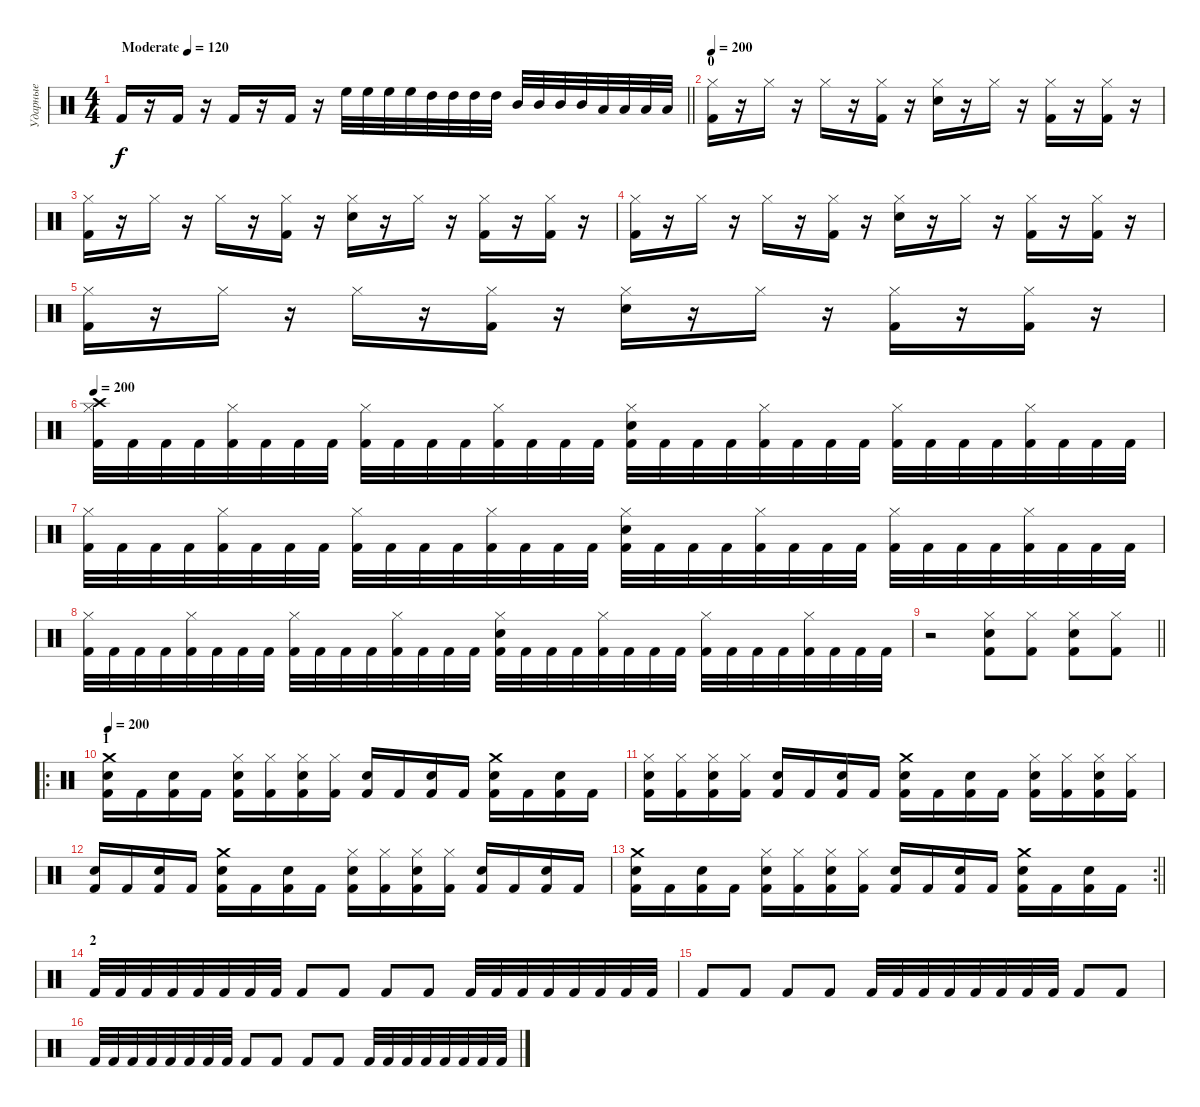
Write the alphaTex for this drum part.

\track ("Ударные" "Ударные") {instrument percussion}
\staff {score}
\articulation defaults
\ts (4 4)
\tempo (120 "Moderate")
\tempo 200
\tempo (120 "Moderate")
\clef neutral
\barLineRight lightlight
\ks c "Kick (hit) 2".16{dy f}
r.16 "Kick (hit) 2".16 r.16 "Kick (hit) 2".16 r.16 "Kick (hit) 2".16 r.16 "High Floor Tom (hit)".32 "High Floor Tom (hit)".32 "High Floor Tom (hit)".32 "High Floor Tom (hit)".32 "High Tom (hit)".32 "High Tom (hit)".32 "High Tom (hit)".32 "High Tom (hit)".32 "Mid Tom (hit)".32 "Mid Tom (hit)".32 "Mid Tom (hit)".32 "Mid Tom (hit)".32 "Low Tom (hit)".32 "Low Tom (hit)".32 "Low Tom (hit)".32 "Low Tom (hit)".32 |
\section ("" "0")
\tempo 200
("Hi-Hat (closed)" "Kick (hit) 2").16 r.16 "Hi-Hat (closed)".16 r.16 "Hi-Hat (closed)".16 r.16 ("Hi-Hat (closed)" "Kick (hit) 2").16 r.16 ("Hi-Hat (closed)" "Electric Snare (hit)").16 r.16 "Hi-Hat (closed)".16 r.16 ("Hi-Hat (closed)" "Kick (hit) 2").16 r.16 ("Hi-Hat (closed)" "Kick (hit) 2").16 r.16 |
("Hi-Hat (closed)" "Kick (hit) 2").16 r.16 "Hi-Hat (closed)".16 r.16 "Hi-Hat (closed)".16 r.16 ("Hi-Hat (closed)" "Kick (hit) 2").16 r.16 ("Hi-Hat (closed)" "Electric Snare (hit)").16 r.16 "Hi-Hat (closed)".16 r.16 ("Hi-Hat (closed)" "Kick (hit) 2").16 r.16 ("Hi-Hat (closed)" "Kick (hit) 2").16 r.16 |
("Hi-Hat (closed)" "Kick (hit) 2").16 r.16 "Hi-Hat (closed)".16 r.16 "Hi-Hat (closed)".16 r.16 ("Hi-Hat (closed)" "Kick (hit) 2").16 r.16 ("Hi-Hat (closed)" "Electric Snare (hit)").16 r.16 "Hi-Hat (closed)".16 r.16 ("Hi-Hat (closed)" "Kick (hit) 2").16 r.16 ("Hi-Hat (closed)" "Kick (hit) 2").16 r.16 |
("Hi-Hat (closed)" "Kick (hit) 2").16 r.16 "Hi-Hat (closed)".16 r.16 "Hi-Hat (closed)".16 r.16 ("Hi-Hat (closed)" "Kick (hit) 2").16 r.16 ("Hi-Hat (closed)" "Electric Snare (hit)").16 r.16 "Hi-Hat (closed)".16 r.16 ("Hi-Hat (closed)" "Kick (hit) 2").16 r.16 ("Hi-Hat (closed)" "Kick (hit) 2").16 r.16 |
\tempo 200
("Hi-Hat (closed)" "Crash high (hit)" "Kick (hit) 2").32 "Kick (hit) 2".32 "Kick (hit) 2".32 "Kick (hit) 2".32 ("Hi-Hat (closed)" "Kick (hit) 2").32 "Kick (hit) 2".32 "Kick (hit) 2".32 "Kick (hit) 2".32 ("Hi-Hat (closed)" "Kick (hit) 2").32 "Kick (hit) 2".32 "Kick (hit) 2".32 "Kick (hit) 2".32 ("Hi-Hat (closed)" "Kick (hit) 2").32 "Kick (hit) 2".32 "Kick (hit) 2".32 "Kick (hit) 2".32 ("Hi-Hat (closed)" "Electric Snare (hit)" "Kick (hit) 2").32 "Kick (hit) 2".32 "Kick (hit) 2".32 "Kick (hit) 2".32 ("Hi-Hat (closed)" "Kick (hit) 2").32 "Kick (hit) 2".32 "Kick (hit) 2".32 "Kick (hit) 2".32 ("Hi-Hat (closed)" "Kick (hit) 2").32 "Kick (hit) 2".32 "Kick (hit) 2".32 "Kick (hit) 2".32 ("Hi-Hat (closed)" "Kick (hit) 2").32 "Kick (hit) 2".32 "Kick (hit) 2".32 "Kick (hit) 2".32 |
("Hi-Hat (closed)" "Kick (hit) 2").32 "Kick (hit) 2".32 "Kick (hit) 2".32 "Kick (hit) 2".32 ("Hi-Hat (closed)" "Kick (hit) 2").32 "Kick (hit) 2".32 "Kick (hit) 2".32 "Kick (hit) 2".32 ("Hi-Hat (closed)" "Kick (hit) 2").32 "Kick (hit) 2".32 "Kick (hit) 2".32 "Kick (hit) 2".32 ("Hi-Hat (closed)" "Kick (hit) 2").32 "Kick (hit) 2".32 "Kick (hit) 2".32 "Kick (hit) 2".32 ("Hi-Hat (closed)" "Electric Snare (hit)" "Kick (hit) 2").32 "Kick (hit) 2".32 "Kick (hit) 2".32 "Kick (hit) 2".32 ("Hi-Hat (closed)" "Kick (hit) 2").32 "Kick (hit) 2".32 "Kick (hit) 2".32 "Kick (hit) 2".32 ("Hi-Hat (closed)" "Kick (hit) 2").32 "Kick (hit) 2".32 "Kick (hit) 2".32 "Kick (hit) 2".32 ("Hi-Hat (closed)" "Kick (hit) 2").32 "Kick (hit) 2".32 "Kick (hit) 2".32 "Kick (hit) 2".32 |
("Hi-Hat (closed)" "Kick (hit) 2").32 "Kick (hit) 2".32 "Kick (hit) 2".32 "Kick (hit) 2".32 ("Hi-Hat (closed)" "Kick (hit) 2").32 "Kick (hit) 2".32 "Kick (hit) 2".32 "Kick (hit) 2".32 ("Hi-Hat (closed)" "Kick (hit) 2").32 "Kick (hit) 2".32 "Kick (hit) 2".32 "Kick (hit) 2".32 ("Hi-Hat (closed)" "Kick (hit) 2").32 "Kick (hit) 2".32 "Kick (hit) 2".32 "Kick (hit) 2".32 ("Hi-Hat (closed)" "Electric Snare (hit)" "Kick (hit) 2").32 "Kick (hit) 2".32 "Kick (hit) 2".32 "Kick (hit) 2".32 ("Hi-Hat (closed)" "Kick (hit) 2").32 "Kick (hit) 2".32 "Kick (hit) 2".32 "Kick (hit) 2".32 ("Hi-Hat (closed)" "Kick (hit) 2").32 "Kick (hit) 2".32 "Kick (hit) 2".32 "Kick (hit) 2".32 ("Hi-Hat (closed)" "Kick (hit) 2").32 "Kick (hit) 2".32 "Kick (hit) 2".32 "Kick (hit) 2".32 |
\barLineRight lightlight
r.2 ("Hi-Hat (closed)" "Snare (hit) 2" "Kick (hit) 2").8 ("Hi-Hat (closed)" "Kick (hit) 2").8 ("Hi-Hat (closed)" "Snare (hit) 2" "Kick (hit) 2").8 ("Hi-Hat (closed)" "Kick (hit) 2").8 |
\ro
\section ("" "1")
\tempo 200
("Crash medium (hit)" "Electric Snare (hit)" "Kick (hit) 2").16 "Kick (hit) 2".16 ("Electric Snare (hit)" "Kick (hit) 2").16 "Kick (hit) 2".16 ("Hi-Hat (closed)" "Electric Snare (hit)" "Kick (hit) 2").16 ("Hi-Hat (closed)" "Kick (hit) 2").16 ("Hi-Hat (closed)" "Electric Snare (hit)" "Kick (hit) 2").16 ("Hi-Hat (closed)" "Kick (hit) 2").16 ("Electric Snare (hit)" "Kick (hit) 2").16 "Kick (hit) 2".16 ("Electric Snare (hit)" "Kick (hit) 2").16 "Kick (hit) 2".16 ("Crash medium (hit)" "Electric Snare (hit)" "Kick (hit) 2").16 "Kick (hit) 2".16 ("Electric Snare (hit)" "Kick (hit) 2").16 "Kick (hit) 2".16 |
("Hi-Hat (closed)" "Electric Snare (hit)" "Kick (hit) 2").16 ("Hi-Hat (closed)" "Kick (hit) 2").16 ("Hi-Hat (closed)" "Electric Snare (hit)" "Kick (hit) 2").16 ("Hi-Hat (closed)" "Kick (hit) 2").16 ("Electric Snare (hit)" "Kick (hit) 2").16 "Kick (hit) 2".16 ("Electric Snare (hit)" "Kick (hit) 2").16 "Kick (hit) 2".16 ("Crash medium (hit)" "Electric Snare (hit)" "Kick (hit) 2").16 "Kick (hit) 2".16 ("Electric Snare (hit)" "Kick (hit) 2").16 "Kick (hit) 2".16 ("Hi-Hat (closed)" "Electric Snare (hit)" "Kick (hit) 2").16 ("Hi-Hat (closed)" "Kick (hit) 2").16 ("Hi-Hat (closed)" "Electric Snare (hit)" "Kick (hit) 2").16 ("Hi-Hat (closed)" "Kick (hit) 2").16 |
("Electric Snare (hit)" "Kick (hit) 2").16 "Kick (hit) 2".16 ("Electric Snare (hit)" "Kick (hit) 2").16 "Kick (hit) 2".16 ("Crash medium (hit)" "Electric Snare (hit)" "Kick (hit) 2").16 "Kick (hit) 2".16 ("Electric Snare (hit)" "Kick (hit) 2").16 "Kick (hit) 2".16 ("Hi-Hat (closed)" "Electric Snare (hit)" "Kick (hit) 2").16 ("Hi-Hat (closed)" "Kick (hit) 2").16 ("Hi-Hat (closed)" "Electric Snare (hit)" "Kick (hit) 2").16 ("Hi-Hat (closed)" "Kick (hit) 2").16 ("Electric Snare (hit)" "Kick (hit) 2").16 "Kick (hit) 2".16 ("Electric Snare (hit)" "Kick (hit) 2").16 "Kick (hit) 2".16 |
\rc 2
\barLineRight lightlight
("Crash medium (hit)" "Electric Snare (hit)" "Kick (hit) 2").16 "Kick (hit) 2".16 ("Electric Snare (hit)" "Kick (hit) 2").16 "Kick (hit) 2".16 ("Hi-Hat (closed)" "Electric Snare (hit)" "Kick (hit) 2").16 ("Hi-Hat (closed)" "Kick (hit) 2").16 ("Hi-Hat (closed)" "Electric Snare (hit)" "Kick (hit) 2").16 ("Hi-Hat (closed)" "Kick (hit) 2").16 ("Electric Snare (hit)" "Kick (hit) 2").16 "Kick (hit) 2".16 ("Electric Snare (hit)" "Kick (hit) 2").16 "Kick (hit) 2".16 ("Crash medium (hit)" "Electric Snare (hit)" "Kick (hit) 2").16 "Kick (hit) 2".16 ("Electric Snare (hit)" "Kick (hit) 2").16 "Kick (hit) 2".16 |
\section ("" "2")
"Kick (hit) 2".32 "Kick (hit) 2".32 "Kick (hit) 2".32 "Kick (hit) 2".32 "Kick (hit) 2".32 "Kick (hit) 2".32 "Kick (hit) 2".32 "Kick (hit) 2".32 "Kick (hit) 2".8 "Kick (hit) 2".8 "Kick (hit) 2".8 "Kick (hit) 2".8 "Kick (hit) 2".32 "Kick (hit) 2".32 "Kick (hit) 2".32 "Kick (hit) 2".32 "Kick (hit) 2".32 "Kick (hit) 2".32 "Kick (hit) 2".32 "Kick (hit) 2".32 |
"Kick (hit) 2".8 "Kick (hit) 2".8 "Kick (hit) 2".8 "Kick (hit) 2".8 "Kick (hit) 2".32 "Kick (hit) 2".32 "Kick (hit) 2".32 "Kick (hit) 2".32 "Kick (hit) 2".32 "Kick (hit) 2".32 "Kick (hit) 2".32 "Kick (hit) 2".32 "Kick (hit) 2".8 "Kick (hit) 2".8 |
"Kick (hit) 2".32 "Kick (hit) 2".32 "Kick (hit) 2".32 "Kick (hit) 2".32 "Kick (hit) 2".32 "Kick (hit) 2".32 "Kick (hit) 2".32 "Kick (hit) 2".32 "Kick (hit) 2".8 "Kick (hit) 2".8 "Kick (hit) 2".8 "Kick (hit) 2".8 "Kick (hit) 2".32 "Kick (hit) 2".32 "Kick (hit) 2".32 "Kick (hit) 2".32 "Kick (hit) 2".32 "Kick (hit) 2".32 "Kick (hit) 2".32 "Kick (hit) 2".32
